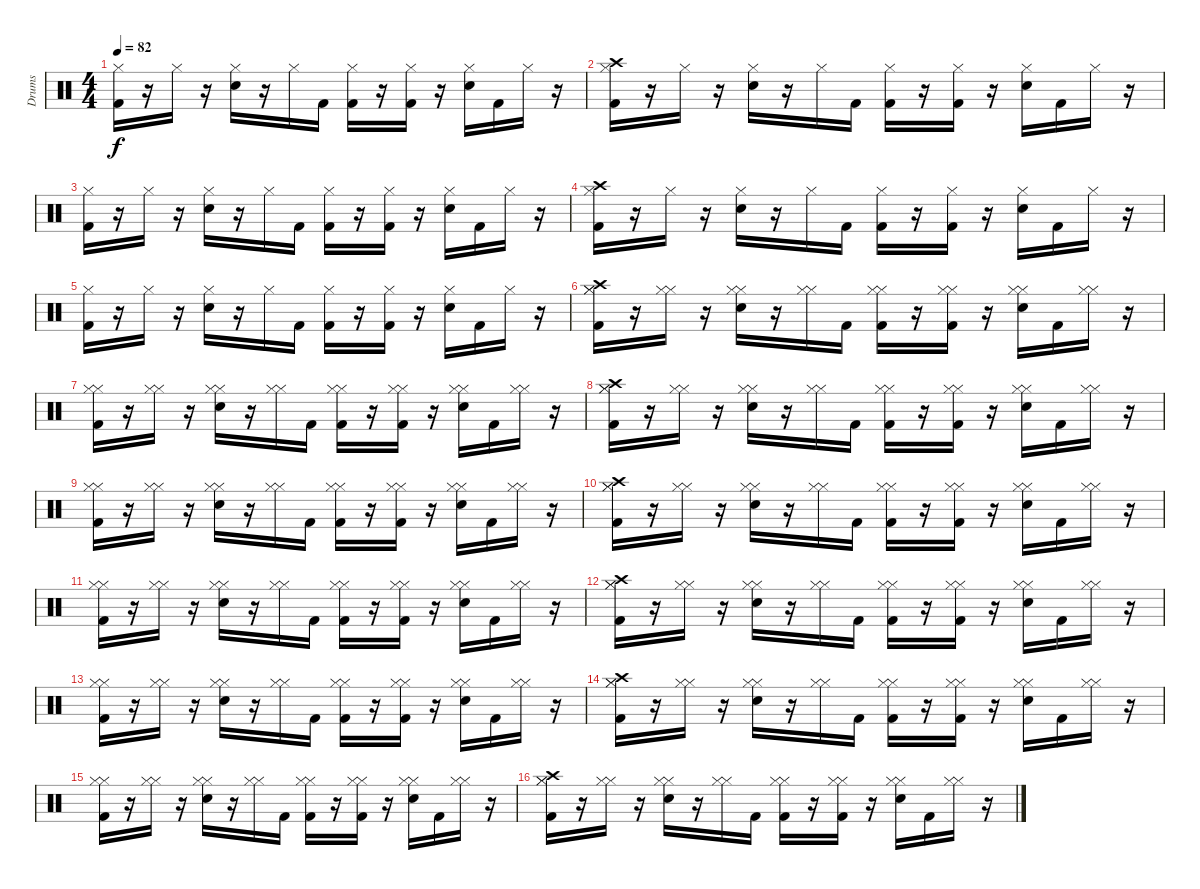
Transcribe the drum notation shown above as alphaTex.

\track ("Drums" "Drums") {instrument percussion}
\staff {score}
\articulation defaults
\ts (4 4)
\tempo 82
\clef neutral
\ks c
("Hi-Hat (closed)" "Kick (hit) 2").16{dy f} r.16 "Hi-Hat (closed)".16 r.16 ("Hi-Hat (closed)" "Snare (hit) 2").16 r.16 "Hi-Hat (closed)".16 "Kick (hit) 2".16 ("Hi-Hat (closed)" "Kick (hit) 2").16 r.16 ("Hi-Hat (closed)" "Kick (hit) 2").16 r.16 ("Hi-Hat (closed)" "Snare (hit) 2").16 "Kick (hit) 2".16 "Hi-Hat (closed)".16 r.16 |
("Crash high (hit)" "Hi-Hat (closed)" "Kick (hit) 2").16 r.16 "Hi-Hat (closed)".16 r.16 ("Hi-Hat (closed)" "Snare (hit) 2").16 r.16 "Hi-Hat (closed)".16 "Kick (hit) 2".16 ("Hi-Hat (closed)" "Kick (hit) 2").16 r.16 ("Hi-Hat (closed)" "Kick (hit) 2").16 r.16 ("Hi-Hat (closed)" "Snare (hit) 2").16 "Kick (hit) 2".16 "Hi-Hat (closed)".16 r.16 |
("Hi-Hat (closed)" "Kick (hit) 2").16 r.16 "Hi-Hat (closed)".16 r.16 ("Hi-Hat (closed)" "Snare (hit) 2").16 r.16 "Hi-Hat (closed)".16 "Kick (hit) 2".16 ("Hi-Hat (closed)" "Kick (hit) 2").16 r.16 ("Hi-Hat (closed)" "Kick (hit) 2").16 r.16 ("Hi-Hat (closed)" "Snare (hit) 2").16 "Kick (hit) 2".16 "Hi-Hat (closed)".16 r.16 |
("Crash high (hit)" "Hi-Hat (closed)" "Kick (hit) 2").16 r.16 "Hi-Hat (closed)".16 r.16 ("Hi-Hat (closed)" "Snare (hit) 2").16 r.16 "Hi-Hat (closed)".16 "Kick (hit) 2".16 ("Hi-Hat (closed)" "Kick (hit) 2").16 r.16 ("Hi-Hat (closed)" "Kick (hit) 2").16 r.16 ("Hi-Hat (closed)" "Snare (hit) 2").16 "Kick (hit) 2".16 "Hi-Hat (closed)".16 r.16 |
("Hi-Hat (closed)" "Kick (hit) 2").16 r.16 "Hi-Hat (closed)".16 r.16 ("Hi-Hat (closed)" "Snare (hit) 2").16 r.16 "Hi-Hat (closed)".16 "Kick (hit) 2".16 ("Hi-Hat (closed)" "Kick (hit) 2").16 r.16 ("Hi-Hat (closed)" "Kick (hit) 2").16 r.16 ("Hi-Hat (closed)" "Snare (hit) 2").16 "Kick (hit) 2".16 "Hi-Hat (closed)".16 r.16 |
("Crash high (hit)" "Hi-Hat (closed)" "Hi-Hat (closed)" "Kick (hit) 2").16 r.16 ("Hi-Hat (closed)" "Hi-Hat (closed)").16 r.16 ("Hi-Hat (closed)" "Hi-Hat (closed)" "Snare (hit) 2").16 r.16 ("Hi-Hat (closed)" "Hi-Hat (closed)").16 "Kick (hit) 2".16 ("Hi-Hat (closed)" "Hi-Hat (closed)" "Kick (hit) 2").16 r.16 ("Hi-Hat (closed)" "Hi-Hat (closed)" "Kick (hit) 2").16 r.16 ("Hi-Hat (closed)" "Hi-Hat (closed)" "Snare (hit) 2").16 "Kick (hit) 2".16 ("Hi-Hat (closed)" "Hi-Hat (closed)").16 r.16 |
("Hi-Hat (closed)" "Hi-Hat (closed)" "Kick (hit) 2").16 r.16 ("Hi-Hat (closed)" "Hi-Hat (closed)").16 r.16 ("Hi-Hat (closed)" "Hi-Hat (closed)" "Snare (hit) 2").16 r.16 ("Hi-Hat (closed)" "Hi-Hat (closed)").16 "Kick (hit) 2".16 ("Hi-Hat (closed)" "Hi-Hat (closed)" "Kick (hit) 2").16 r.16 ("Hi-Hat (closed)" "Hi-Hat (closed)" "Kick (hit) 2").16 r.16 ("Hi-Hat (closed)" "Hi-Hat (closed)" "Snare (hit) 2").16 "Kick (hit) 2".16 ("Hi-Hat (closed)" "Hi-Hat (closed)").16 r.16 |
("Crash high (hit)" "Hi-Hat (closed)" "Hi-Hat (closed)" "Kick (hit) 2").16 r.16 ("Hi-Hat (closed)" "Hi-Hat (closed)").16 r.16 ("Hi-Hat (closed)" "Hi-Hat (closed)" "Snare (hit) 2").16 r.16 ("Hi-Hat (closed)" "Hi-Hat (closed)").16 "Kick (hit) 2".16 ("Hi-Hat (closed)" "Hi-Hat (closed)" "Kick (hit) 2").16 r.16 ("Hi-Hat (closed)" "Hi-Hat (closed)" "Kick (hit) 2").16 r.16 ("Hi-Hat (closed)" "Hi-Hat (closed)" "Snare (hit) 2").16 "Kick (hit) 2".16 ("Hi-Hat (closed)" "Hi-Hat (closed)").16 r.16 |
("Hi-Hat (closed)" "Hi-Hat (closed)" "Kick (hit) 2").16 r.16 ("Hi-Hat (closed)" "Hi-Hat (closed)").16 r.16 ("Hi-Hat (closed)" "Hi-Hat (closed)" "Snare (hit) 2").16 r.16 ("Hi-Hat (closed)" "Hi-Hat (closed)").16 "Kick (hit) 2".16 ("Hi-Hat (closed)" "Hi-Hat (closed)" "Kick (hit) 2").16 r.16 ("Hi-Hat (closed)" "Hi-Hat (closed)" "Kick (hit) 2").16 r.16 ("Hi-Hat (closed)" "Hi-Hat (closed)" "Snare (hit) 2").16 "Kick (hit) 2".16 ("Hi-Hat (closed)" "Hi-Hat (closed)").16 r.16 |
("Crash high (hit)" "Hi-Hat (closed)" "Hi-Hat (closed)" "Kick (hit) 2").16 r.16 ("Hi-Hat (closed)" "Hi-Hat (closed)").16 r.16 ("Hi-Hat (closed)" "Hi-Hat (closed)" "Snare (hit) 2").16 r.16 ("Hi-Hat (closed)" "Hi-Hat (closed)").16 "Kick (hit) 2".16 ("Hi-Hat (closed)" "Hi-Hat (closed)" "Kick (hit) 2").16 r.16 ("Hi-Hat (closed)" "Hi-Hat (closed)" "Kick (hit) 2").16 r.16 ("Hi-Hat (closed)" "Hi-Hat (closed)" "Snare (hit) 2").16 "Kick (hit) 2".16 ("Hi-Hat (closed)" "Hi-Hat (closed)").16 r.16 |
("Hi-Hat (closed)" "Hi-Hat (closed)" "Kick (hit) 2").16 r.16 ("Hi-Hat (closed)" "Hi-Hat (closed)").16 r.16 ("Hi-Hat (closed)" "Hi-Hat (closed)" "Snare (hit) 2").16 r.16 ("Hi-Hat (closed)" "Hi-Hat (closed)").16 "Kick (hit) 2".16 ("Hi-Hat (closed)" "Hi-Hat (closed)" "Kick (hit) 2").16 r.16 ("Hi-Hat (closed)" "Hi-Hat (closed)" "Kick (hit) 2").16 r.16 ("Hi-Hat (closed)" "Hi-Hat (closed)" "Snare (hit) 2").16 "Kick (hit) 2".16 ("Hi-Hat (closed)" "Hi-Hat (closed)").16 r.16 |
("Crash high (hit)" "Hi-Hat (closed)" "Hi-Hat (closed)" "Kick (hit) 2").16 r.16 ("Hi-Hat (closed)" "Hi-Hat (closed)").16 r.16 ("Hi-Hat (closed)" "Hi-Hat (closed)" "Snare (hit) 2").16 r.16 ("Hi-Hat (closed)" "Hi-Hat (closed)").16 "Kick (hit) 2".16 ("Hi-Hat (closed)" "Hi-Hat (closed)" "Kick (hit) 2").16 r.16 ("Hi-Hat (closed)" "Hi-Hat (closed)" "Kick (hit) 2").16 r.16 ("Hi-Hat (closed)" "Hi-Hat (closed)" "Snare (hit) 2").16 "Kick (hit) 2".16 ("Hi-Hat (closed)" "Hi-Hat (closed)").16 r.16 |
("Hi-Hat (closed)" "Hi-Hat (closed)" "Kick (hit) 2").16 r.16 ("Hi-Hat (closed)" "Hi-Hat (closed)").16 r.16 ("Hi-Hat (closed)" "Hi-Hat (closed)" "Snare (hit) 2").16 r.16 ("Hi-Hat (closed)" "Hi-Hat (closed)").16 "Kick (hit) 2".16 ("Hi-Hat (closed)" "Hi-Hat (closed)" "Kick (hit) 2").16 r.16 ("Hi-Hat (closed)" "Hi-Hat (closed)" "Kick (hit) 2").16 r.16 ("Hi-Hat (closed)" "Hi-Hat (closed)" "Snare (hit) 2").16 "Kick (hit) 2".16 ("Hi-Hat (closed)" "Hi-Hat (closed)").16 r.16 |
("Crash high (hit)" "Hi-Hat (closed)" "Hi-Hat (closed)" "Kick (hit) 2").16 r.16 ("Hi-Hat (closed)" "Hi-Hat (closed)").16 r.16 ("Hi-Hat (closed)" "Hi-Hat (closed)" "Snare (hit) 2").16 r.16 ("Hi-Hat (closed)" "Hi-Hat (closed)").16 "Kick (hit) 2".16 ("Hi-Hat (closed)" "Hi-Hat (closed)" "Kick (hit) 2").16 r.16 ("Hi-Hat (closed)" "Hi-Hat (closed)" "Kick (hit) 2").16 r.16 ("Hi-Hat (closed)" "Hi-Hat (closed)" "Snare (hit) 2").16 "Kick (hit) 2".16 ("Hi-Hat (closed)" "Hi-Hat (closed)").16 r.16 |
("Hi-Hat (closed)" "Hi-Hat (closed)" "Kick (hit) 2").16 r.16 ("Hi-Hat (closed)" "Hi-Hat (closed)").16 r.16 ("Hi-Hat (closed)" "Hi-Hat (closed)" "Snare (hit) 2").16 r.16 ("Hi-Hat (closed)" "Hi-Hat (closed)").16 "Kick (hit) 2".16 ("Hi-Hat (closed)" "Hi-Hat (closed)" "Kick (hit) 2").16 r.16 ("Hi-Hat (closed)" "Hi-Hat (closed)" "Kick (hit) 2").16 r.16 ("Hi-Hat (closed)" "Hi-Hat (closed)" "Snare (hit) 2").16 "Kick (hit) 2".16 ("Hi-Hat (closed)" "Hi-Hat (closed)").16 r.16 |
("Crash high (hit)" "Hi-Hat (closed)" "Hi-Hat (closed)" "Kick (hit) 2").16 r.16 ("Hi-Hat (closed)" "Hi-Hat (closed)").16 r.16 ("Hi-Hat (closed)" "Hi-Hat (closed)" "Snare (hit) 2").16 r.16 ("Hi-Hat (closed)" "Hi-Hat (closed)").16 "Kick (hit) 2".16 ("Hi-Hat (closed)" "Hi-Hat (closed)" "Kick (hit) 2").16 r.16 ("Hi-Hat (closed)" "Hi-Hat (closed)" "Kick (hit) 2").16 r.16 ("Hi-Hat (closed)" "Hi-Hat (closed)" "Snare (hit) 2").16 "Kick (hit) 2".16 ("Hi-Hat (closed)" "Hi-Hat (closed)").16 r.16
